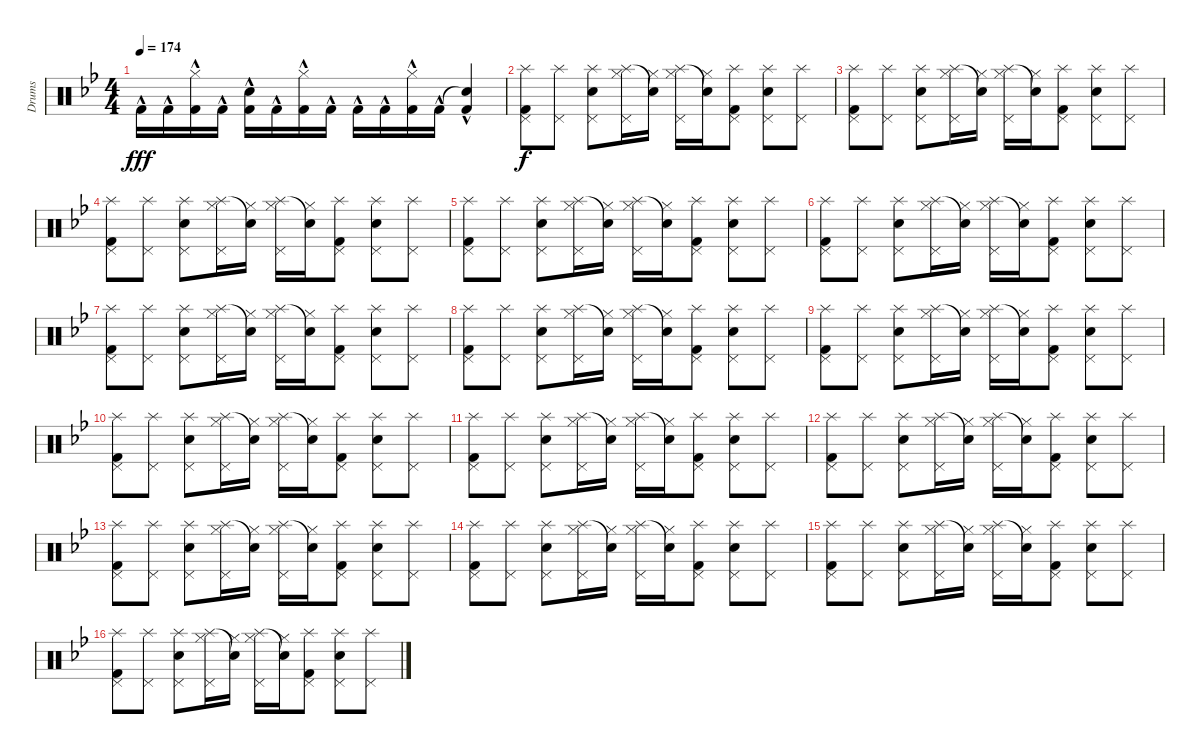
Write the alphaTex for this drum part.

\track ("Drums" "Drums") {instrument percussion}
\staff {score}
\articulation defaults
\ts (4 4)
\tempo 174
\clef neutral
\ks gminor "Kick (hit) 2"{hac}.16{dy fff} "Kick (hit) 2"{hac}.16
("Hi-Hat (closed)" "Kick (hit) 2"{hac}).16 "Kick (hit) 2"{hac}.16 ("Hand Clap (hit)" "Kick (hit) 2"{hac}).16 "Kick (hit) 2"{hac}.16 ("Hi-Hat (closed)" "Kick (hit) 2"{hac}).16 "Kick (hit) 2"{hac}.16 "Kick (hit) 2"{hac}.16 "Kick (hit) 2"{hac}.16 ("Hi-Hat (closed)" "Kick (hit) 2"{hac}).16 "Kick (hit) 2"{hac}.16 ("Snare (hit)"{t} "Kick (hit) 2"{hac}).4 |
("Splash (hit)" "Pedal Hi-Hat (hit)" "Kick (hit) 2").8{dy f} ("Splash (hit)" "Pedal Hi-Hat (hit)").8 ("Splash (hit)" "Pedal Hi-Hat (hit)" "Snare (hit) 2").8 ("Splash (hit)" "Pedal Hi-Hat (hit)" "Hi-Hat (closed)").16 ("Snare (hit)"{t} "Hi-Hat (closed)").16 ("Splash (hit)" "Pedal Hi-Hat (hit)" "Hi-Hat (closed)").16 ("Snare (hit)"{t} "Hi-Hat (closed)").16 ("Splash (hit)" "Pedal Hi-Hat (hit)" "Kick (hit) 2").8 ("Splash (hit)" "Pedal Hi-Hat (hit)" "Snare (hit) 2").8 ("Splash (hit)" "Pedal Hi-Hat (hit)").8 |
("Splash (hit)" "Pedal Hi-Hat (hit)" "Kick (hit) 2").8 ("Splash (hit)" "Pedal Hi-Hat (hit)").8 ("Splash (hit)" "Pedal Hi-Hat (hit)" "Snare (hit) 2").8 ("Splash (hit)" "Pedal Hi-Hat (hit)" "Hi-Hat (closed)").16 ("Snare (hit)"{t} "Hi-Hat (closed)").16 ("Splash (hit)" "Pedal Hi-Hat (hit)" "Hi-Hat (closed)").16 ("Snare (hit)"{t} "Hi-Hat (closed)").16 ("Splash (hit)" "Pedal Hi-Hat (hit)" "Kick (hit) 2").8 ("Splash (hit)" "Pedal Hi-Hat (hit)" "Snare (hit) 2").8 ("Splash (hit)" "Pedal Hi-Hat (hit)").8 |
("Splash (hit)" "Pedal Hi-Hat (hit)" "Kick (hit) 2").8 ("Splash (hit)" "Pedal Hi-Hat (hit)").8 ("Splash (hit)" "Pedal Hi-Hat (hit)" "Snare (hit) 2").8 ("Splash (hit)" "Pedal Hi-Hat (hit)" "Hi-Hat (closed)").16 ("Snare (hit)"{t} "Hi-Hat (closed)").16 ("Splash (hit)" "Pedal Hi-Hat (hit)" "Hi-Hat (closed)").16 ("Snare (hit)"{t} "Hi-Hat (closed)").16 ("Splash (hit)" "Pedal Hi-Hat (hit)" "Kick (hit) 2").8 ("Splash (hit)" "Pedal Hi-Hat (hit)" "Snare (hit) 2").8 ("Splash (hit)" "Pedal Hi-Hat (hit)").8 |
("Splash (hit)" "Pedal Hi-Hat (hit)" "Kick (hit) 2").8 ("Splash (hit)" "Pedal Hi-Hat (hit)").8 ("Splash (hit)" "Pedal Hi-Hat (hit)" "Snare (hit) 2").8 ("Splash (hit)" "Pedal Hi-Hat (hit)" "Hi-Hat (closed)").16 ("Snare (hit)"{t} "Hi-Hat (closed)").16 ("Splash (hit)" "Pedal Hi-Hat (hit)" "Hi-Hat (closed)").16 ("Snare (hit)"{t} "Hi-Hat (closed)").16 ("Splash (hit)" "Pedal Hi-Hat (hit)" "Kick (hit) 2").8 ("Splash (hit)" "Pedal Hi-Hat (hit)" "Snare (hit) 2").8 ("Splash (hit)" "Pedal Hi-Hat (hit)").8 |
("Splash (hit)" "Pedal Hi-Hat (hit)" "Kick (hit) 2").8 ("Splash (hit)" "Pedal Hi-Hat (hit)").8 ("Splash (hit)" "Pedal Hi-Hat (hit)" "Snare (hit) 2").8 ("Splash (hit)" "Pedal Hi-Hat (hit)" "Hi-Hat (closed)").16 ("Snare (hit)"{t} "Hi-Hat (closed)").16 ("Splash (hit)" "Pedal Hi-Hat (hit)" "Hi-Hat (closed)").16 ("Snare (hit)"{t} "Hi-Hat (closed)").16 ("Splash (hit)" "Pedal Hi-Hat (hit)" "Kick (hit) 2").8 ("Splash (hit)" "Pedal Hi-Hat (hit)" "Snare (hit) 2").8 ("Splash (hit)" "Pedal Hi-Hat (hit)").8 |
("Splash (hit)" "Pedal Hi-Hat (hit)" "Kick (hit) 2").8 ("Splash (hit)" "Pedal Hi-Hat (hit)").8 ("Splash (hit)" "Pedal Hi-Hat (hit)" "Snare (hit) 2").8 ("Splash (hit)" "Pedal Hi-Hat (hit)" "Hi-Hat (closed)").16 ("Snare (hit)"{t} "Hi-Hat (closed)").16 ("Splash (hit)" "Pedal Hi-Hat (hit)" "Hi-Hat (closed)").16 ("Snare (hit)"{t} "Hi-Hat (closed)").16 ("Splash (hit)" "Pedal Hi-Hat (hit)" "Kick (hit) 2").8 ("Splash (hit)" "Pedal Hi-Hat (hit)" "Snare (hit) 2").8 ("Splash (hit)" "Pedal Hi-Hat (hit)").8 |
("Splash (hit)" "Pedal Hi-Hat (hit)" "Kick (hit) 2").8 ("Splash (hit)" "Pedal Hi-Hat (hit)").8 ("Splash (hit)" "Pedal Hi-Hat (hit)" "Snare (hit) 2").8 ("Splash (hit)" "Pedal Hi-Hat (hit)" "Hi-Hat (closed)").16 ("Snare (hit)"{t} "Hi-Hat (closed)").16 ("Splash (hit)" "Pedal Hi-Hat (hit)" "Hi-Hat (closed)").16 ("Snare (hit)"{t} "Hi-Hat (closed)").16 ("Splash (hit)" "Pedal Hi-Hat (hit)" "Kick (hit) 2").8 ("Splash (hit)" "Pedal Hi-Hat (hit)" "Snare (hit) 2").8 ("Splash (hit)" "Pedal Hi-Hat (hit)").8 |
("Splash (hit)" "Pedal Hi-Hat (hit)" "Kick (hit) 2").8 ("Splash (hit)" "Pedal Hi-Hat (hit)").8 ("Splash (hit)" "Pedal Hi-Hat (hit)" "Snare (hit) 2").8 ("Splash (hit)" "Pedal Hi-Hat (hit)" "Hi-Hat (closed)").16 ("Snare (hit)"{t} "Hi-Hat (closed)").16 ("Splash (hit)" "Pedal Hi-Hat (hit)" "Hi-Hat (closed)").16 ("Snare (hit)"{t} "Hi-Hat (closed)").16 ("Splash (hit)" "Pedal Hi-Hat (hit)" "Kick (hit) 2").8 ("Splash (hit)" "Pedal Hi-Hat (hit)" "Snare (hit) 2").8 ("Splash (hit)" "Pedal Hi-Hat (hit)").8 |
("Splash (hit)" "Pedal Hi-Hat (hit)" "Kick (hit) 2").8 ("Splash (hit)" "Pedal Hi-Hat (hit)").8 ("Splash (hit)" "Pedal Hi-Hat (hit)" "Snare (hit) 2").8 ("Splash (hit)" "Pedal Hi-Hat (hit)" "Hi-Hat (closed)").16 ("Snare (hit)"{t} "Hi-Hat (closed)").16 ("Splash (hit)" "Pedal Hi-Hat (hit)" "Hi-Hat (closed)").16 ("Snare (hit)"{t} "Hi-Hat (closed)").16 ("Splash (hit)" "Pedal Hi-Hat (hit)" "Kick (hit) 2").8 ("Splash (hit)" "Pedal Hi-Hat (hit)" "Snare (hit) 2").8 ("Splash (hit)" "Pedal Hi-Hat (hit)").8 |
("Splash (hit)" "Pedal Hi-Hat (hit)" "Kick (hit) 2").8 ("Splash (hit)" "Pedal Hi-Hat (hit)").8 ("Splash (hit)" "Pedal Hi-Hat (hit)" "Snare (hit) 2").8 ("Splash (hit)" "Pedal Hi-Hat (hit)" "Hi-Hat (closed)").16 ("Snare (hit)"{t} "Hi-Hat (closed)").16 ("Splash (hit)" "Pedal Hi-Hat (hit)" "Hi-Hat (closed)").16 ("Snare (hit)"{t} "Hi-Hat (closed)").16 ("Splash (hit)" "Pedal Hi-Hat (hit)" "Kick (hit) 2").8 ("Splash (hit)" "Pedal Hi-Hat (hit)" "Snare (hit) 2").8 ("Splash (hit)" "Pedal Hi-Hat (hit)").8 |
("Splash (hit)" "Pedal Hi-Hat (hit)" "Kick (hit) 2").8 ("Splash (hit)" "Pedal Hi-Hat (hit)").8 ("Splash (hit)" "Pedal Hi-Hat (hit)" "Snare (hit) 2").8 ("Splash (hit)" "Pedal Hi-Hat (hit)" "Hi-Hat (closed)").16 ("Snare (hit)"{t} "Hi-Hat (closed)").16 ("Splash (hit)" "Pedal Hi-Hat (hit)" "Hi-Hat (closed)").16 ("Snare (hit)"{t} "Hi-Hat (closed)").16 ("Splash (hit)" "Pedal Hi-Hat (hit)" "Kick (hit) 2").8 ("Splash (hit)" "Pedal Hi-Hat (hit)" "Snare (hit) 2").8 ("Splash (hit)" "Pedal Hi-Hat (hit)").8 |
("Splash (hit)" "Pedal Hi-Hat (hit)" "Kick (hit) 2").8 ("Splash (hit)" "Pedal Hi-Hat (hit)").8 ("Splash (hit)" "Pedal Hi-Hat (hit)" "Snare (hit) 2").8 ("Splash (hit)" "Pedal Hi-Hat (hit)" "Hi-Hat (closed)").16 ("Snare (hit)"{t} "Hi-Hat (closed)").16 ("Splash (hit)" "Pedal Hi-Hat (hit)" "Hi-Hat (closed)").16 ("Snare (hit)"{t} "Hi-Hat (closed)").16 ("Splash (hit)" "Pedal Hi-Hat (hit)" "Kick (hit) 2").8 ("Splash (hit)" "Pedal Hi-Hat (hit)" "Snare (hit) 2").8 ("Splash (hit)" "Pedal Hi-Hat (hit)").8 |
("Splash (hit)" "Pedal Hi-Hat (hit)" "Kick (hit) 2").8 ("Splash (hit)" "Pedal Hi-Hat (hit)").8 ("Splash (hit)" "Pedal Hi-Hat (hit)" "Snare (hit) 2").8 ("Splash (hit)" "Pedal Hi-Hat (hit)" "Hi-Hat (closed)").16 ("Snare (hit)"{t} "Hi-Hat (closed)").16 ("Splash (hit)" "Pedal Hi-Hat (hit)" "Hi-Hat (closed)").16 ("Snare (hit)"{t} "Hi-Hat (closed)").16 ("Splash (hit)" "Pedal Hi-Hat (hit)" "Kick (hit) 2").8 ("Splash (hit)" "Pedal Hi-Hat (hit)" "Snare (hit) 2").8 ("Splash (hit)" "Pedal Hi-Hat (hit)").8 |
("Splash (hit)" "Pedal Hi-Hat (hit)" "Kick (hit) 2").8 ("Splash (hit)" "Pedal Hi-Hat (hit)").8 ("Splash (hit)" "Pedal Hi-Hat (hit)" "Snare (hit) 2").8 ("Splash (hit)" "Pedal Hi-Hat (hit)" "Hi-Hat (closed)").16 ("Snare (hit)"{t} "Hi-Hat (closed)").16 ("Splash (hit)" "Pedal Hi-Hat (hit)" "Hi-Hat (closed)").16 ("Snare (hit)"{t} "Hi-Hat (closed)").16 ("Splash (hit)" "Pedal Hi-Hat (hit)" "Kick (hit) 2").8 ("Splash (hit)" "Pedal Hi-Hat (hit)" "Snare (hit) 2").8 ("Splash (hit)" "Pedal Hi-Hat (hit)").8 |
("Splash (hit)" "Pedal Hi-Hat (hit)" "Kick (hit) 2").8 ("Splash (hit)" "Pedal Hi-Hat (hit)").8 ("Splash (hit)" "Pedal Hi-Hat (hit)" "Snare (hit) 2").8 ("Splash (hit)" "Pedal Hi-Hat (hit)" "Hi-Hat (closed)").16 ("Snare (hit)"{t} "Hi-Hat (closed)").16 ("Splash (hit)" "Pedal Hi-Hat (hit)" "Hi-Hat (closed)").16 ("Snare (hit)"{t} "Hi-Hat (closed)").16 ("Splash (hit)" "Pedal Hi-Hat (hit)" "Kick (hit) 2").8 ("Splash (hit)" "Pedal Hi-Hat (hit)" "Snare (hit) 2").8 ("Splash (hit)" "Pedal Hi-Hat (hit)").8
